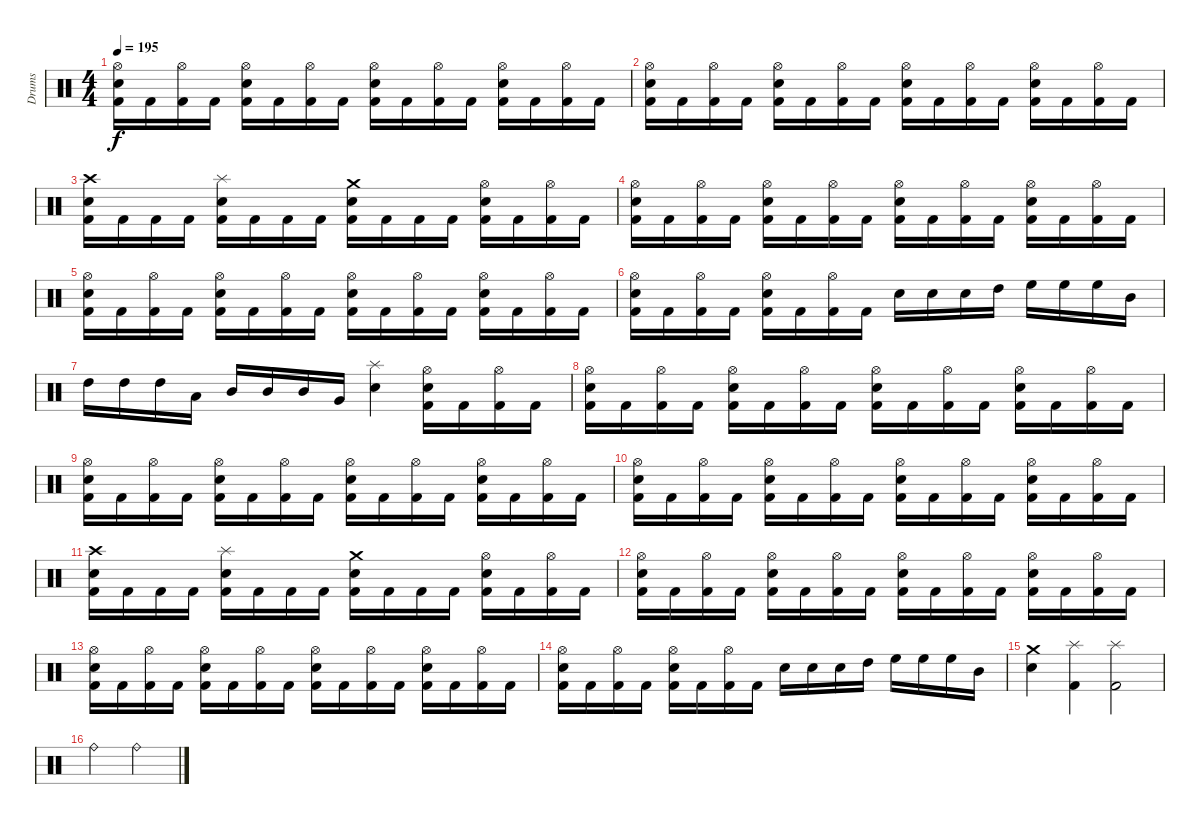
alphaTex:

\track ("Drums" "Drums") {instrument percussion}
\staff {score}
\articulation defaults
\ts (4 4)
\tempo 195
\clef neutral
\ks c
("Hi-Hat (open)" "Electric Snare (hit)" "Kick (hit) 2").16{dy f} "Kick (hit) 2".16 ("Hi-Hat (open)" "Kick (hit) 2").16 "Kick (hit) 2".16 ("Hi-Hat (open)" "Electric Snare (hit)" "Kick (hit) 2").16 "Kick (hit) 2".16 ("Hi-Hat (open)" "Kick (hit) 2").16 "Kick (hit) 2".16 ("Hi-Hat (open)" "Electric Snare (hit)" "Kick (hit) 2").16 "Kick (hit) 2".16 ("Hi-Hat (open)" "Kick (hit) 2").16 "Kick (hit) 2".16 ("Hi-Hat (open)" "Electric Snare (hit)" "Kick (hit) 2").16 "Kick (hit) 2".16 ("Hi-Hat (open)" "Kick (hit) 2").16 "Kick (hit) 2".16 |
("Hi-Hat (open)" "Electric Snare (hit)" "Kick (hit) 2").16 "Kick (hit) 2".16 ("Hi-Hat (open)" "Kick (hit) 2").16 "Kick (hit) 2".16 ("Hi-Hat (open)" "Electric Snare (hit)" "Kick (hit) 2").16 "Kick (hit) 2".16 ("Hi-Hat (open)" "Kick (hit) 2").16 "Kick (hit) 2".16 ("Hi-Hat (open)" "Electric Snare (hit)" "Kick (hit) 2").16 "Kick (hit) 2".16 ("Hi-Hat (open)" "Kick (hit) 2").16 "Kick (hit) 2".16 ("Hi-Hat (open)" "Electric Snare (hit)" "Kick (hit) 2").16 "Kick (hit) 2".16 ("Hi-Hat (open)" "Kick (hit) 2").16 "Kick (hit) 2".16 |
("Crash high (hit)" "Electric Snare (hit)" "Kick (hit) 2").16 "Kick (hit) 2".16 "Kick (hit) 2".16 "Kick (hit) 2".16 ("Splash (hit)" "Electric Snare (hit)" "Kick (hit) 2").16 "Kick (hit) 2".16 "Kick (hit) 2".16 "Kick (hit) 2".16 ("Crash medium (hit)" "Electric Snare (hit)" "Kick (hit) 2").16 "Kick (hit) 2".16 "Kick (hit) 2".16 "Kick (hit) 2".16 ("Hi-Hat (open)" "Electric Snare (hit)" "Kick (hit) 2").16 "Kick (hit) 2".16 ("Hi-Hat (open)" "Kick (hit) 2").16 "Kick (hit) 2".16 |
("Hi-Hat (open)" "Electric Snare (hit)" "Kick (hit) 2").16 "Kick (hit) 2".16 ("Hi-Hat (open)" "Kick (hit) 2").16 "Kick (hit) 2".16 ("Hi-Hat (open)" "Electric Snare (hit)" "Kick (hit) 2").16 "Kick (hit) 2".16 ("Hi-Hat (open)" "Kick (hit) 2").16 "Kick (hit) 2".16 ("Hi-Hat (open)" "Electric Snare (hit)" "Kick (hit) 2").16 "Kick (hit) 2".16 ("Hi-Hat (open)" "Kick (hit) 2").16 "Kick (hit) 2".16 ("Hi-Hat (open)" "Electric Snare (hit)" "Kick (hit) 2").16 "Kick (hit) 2".16 ("Hi-Hat (open)" "Kick (hit) 2").16 "Kick (hit) 2".16 |
("Hi-Hat (open)" "Electric Snare (hit)" "Kick (hit) 2").16 "Kick (hit) 2".16 ("Hi-Hat (open)" "Kick (hit) 2").16 "Kick (hit) 2".16 ("Hi-Hat (open)" "Electric Snare (hit)" "Kick (hit) 2").16 "Kick (hit) 2".16 ("Hi-Hat (open)" "Kick (hit) 2").16 "Kick (hit) 2".16 ("Hi-Hat (open)" "Electric Snare (hit)" "Kick (hit) 2").16 "Kick (hit) 2".16 ("Hi-Hat (open)" "Kick (hit) 2").16 "Kick (hit) 2".16 ("Hi-Hat (open)" "Electric Snare (hit)" "Kick (hit) 2").16 "Kick (hit) 2".16 ("Hi-Hat (open)" "Kick (hit) 2").16 "Kick (hit) 2".16 |
("Hi-Hat (open)" "Electric Snare (hit)" "Kick (hit) 2").16 "Kick (hit) 2".16 ("Hi-Hat (open)" "Kick (hit) 2").16 "Kick (hit) 2".16 ("Hi-Hat (open)" "Electric Snare (hit)" "Kick (hit) 2").16 "Kick (hit) 2".16 ("Hi-Hat (open)" "Kick (hit) 2").16 "Kick (hit) 2".16 "Electric Snare (hit)".16 "Electric Snare (hit)".16 "Electric Snare (hit)".16 "High Tom (hit)".16 "High Floor Tom (hit)".16 "High Floor Tom (hit)".16 "High Floor Tom (hit)".16 "Mid Tom (hit)".16 |
"High Tom (hit)".16 "High Tom (hit)".16 "High Tom (hit)".16 "Low Tom (hit)".16 "Mid Tom (hit)".16 "Mid Tom (hit)".16 "Mid Tom (hit)".16 "Very Low Tom (hit)".16 ("Splash (hit)" "Electric Snare (hit)").4 ("Hi-Hat (open)" "Electric Snare (hit)" "Kick (hit) 2").16 "Kick (hit) 2".16 ("Hi-Hat (open)" "Kick (hit) 2").16 "Kick (hit) 2".16 |
("Hi-Hat (open)" "Electric Snare (hit)" "Kick (hit) 2").16 "Kick (hit) 2".16 ("Hi-Hat (open)" "Kick (hit) 2").16 "Kick (hit) 2".16 ("Hi-Hat (open)" "Electric Snare (hit)" "Kick (hit) 2").16 "Kick (hit) 2".16 ("Hi-Hat (open)" "Kick (hit) 2").16 "Kick (hit) 2".16 ("Hi-Hat (open)" "Electric Snare (hit)" "Kick (hit) 2").16 "Kick (hit) 2".16 ("Hi-Hat (open)" "Kick (hit) 2").16 "Kick (hit) 2".16 ("Hi-Hat (open)" "Electric Snare (hit)" "Kick (hit) 2").16 "Kick (hit) 2".16 ("Hi-Hat (open)" "Kick (hit) 2").16 "Kick (hit) 2".16 |
("Hi-Hat (open)" "Electric Snare (hit)" "Kick (hit) 2").16 "Kick (hit) 2".16 ("Hi-Hat (open)" "Kick (hit) 2").16 "Kick (hit) 2".16 ("Hi-Hat (open)" "Electric Snare (hit)" "Kick (hit) 2").16 "Kick (hit) 2".16 ("Hi-Hat (open)" "Kick (hit) 2").16 "Kick (hit) 2".16 ("Hi-Hat (open)" "Electric Snare (hit)" "Kick (hit) 2").16 "Kick (hit) 2".16 ("Hi-Hat (open)" "Kick (hit) 2").16 "Kick (hit) 2".16 ("Hi-Hat (open)" "Electric Snare (hit)" "Kick (hit) 2").16 "Kick (hit) 2".16 ("Hi-Hat (open)" "Kick (hit) 2").16 "Kick (hit) 2".16 |
("Hi-Hat (open)" "Electric Snare (hit)" "Kick (hit) 2").16 "Kick (hit) 2".16 ("Hi-Hat (open)" "Kick (hit) 2").16 "Kick (hit) 2".16 ("Hi-Hat (open)" "Electric Snare (hit)" "Kick (hit) 2").16 "Kick (hit) 2".16 ("Hi-Hat (open)" "Kick (hit) 2").16 "Kick (hit) 2".16 ("Hi-Hat (open)" "Electric Snare (hit)" "Kick (hit) 2").16 "Kick (hit) 2".16 ("Hi-Hat (open)" "Kick (hit) 2").16 "Kick (hit) 2".16 ("Hi-Hat (open)" "Electric Snare (hit)" "Kick (hit) 2").16 "Kick (hit) 2".16 ("Hi-Hat (open)" "Kick (hit) 2").16 "Kick (hit) 2".16 |
("Crash high (hit)" "Electric Snare (hit)" "Kick (hit) 2").16 "Kick (hit) 2".16 "Kick (hit) 2".16 "Kick (hit) 2".16 ("Splash (hit)" "Electric Snare (hit)" "Kick (hit) 2").16 "Kick (hit) 2".16 "Kick (hit) 2".16 "Kick (hit) 2".16 ("Crash medium (hit)" "Electric Snare (hit)" "Kick (hit) 2").16 "Kick (hit) 2".16 "Kick (hit) 2".16 "Kick (hit) 2".16 ("Hi-Hat (open)" "Electric Snare (hit)" "Kick (hit) 2").16 "Kick (hit) 2".16 ("Hi-Hat (open)" "Kick (hit) 2").16 "Kick (hit) 2".16 |
("Hi-Hat (open)" "Electric Snare (hit)" "Kick (hit) 2").16 "Kick (hit) 2".16 ("Hi-Hat (open)" "Kick (hit) 2").16 "Kick (hit) 2".16 ("Hi-Hat (open)" "Electric Snare (hit)" "Kick (hit) 2").16 "Kick (hit) 2".16 ("Hi-Hat (open)" "Kick (hit) 2").16 "Kick (hit) 2".16 ("Hi-Hat (open)" "Electric Snare (hit)" "Kick (hit) 2").16 "Kick (hit) 2".16 ("Hi-Hat (open)" "Kick (hit) 2").16 "Kick (hit) 2".16 ("Hi-Hat (open)" "Electric Snare (hit)" "Kick (hit) 2").16 "Kick (hit) 2".16 ("Hi-Hat (open)" "Kick (hit) 2").16 "Kick (hit) 2".16 |
("Hi-Hat (open)" "Electric Snare (hit)" "Kick (hit) 2").16 "Kick (hit) 2".16 ("Hi-Hat (open)" "Kick (hit) 2").16 "Kick (hit) 2".16 ("Hi-Hat (open)" "Electric Snare (hit)" "Kick (hit) 2").16 "Kick (hit) 2".16 ("Hi-Hat (open)" "Kick (hit) 2").16 "Kick (hit) 2".16 ("Hi-Hat (open)" "Electric Snare (hit)" "Kick (hit) 2").16 "Kick (hit) 2".16 ("Hi-Hat (open)" "Kick (hit) 2").16 "Kick (hit) 2".16 ("Hi-Hat (open)" "Electric Snare (hit)" "Kick (hit) 2").16 "Kick (hit) 2".16 ("Hi-Hat (open)" "Kick (hit) 2").16 "Kick (hit) 2".16 |
("Hi-Hat (open)" "Electric Snare (hit)" "Kick (hit) 2").16 "Kick (hit) 2".16 ("Hi-Hat (open)" "Kick (hit) 2").16 "Kick (hit) 2".16 ("Hi-Hat (open)" "Electric Snare (hit)" "Kick (hit) 2").16 "Kick (hit) 2".16 ("Hi-Hat (open)" "Kick (hit) 2").16 "Kick (hit) 2".16 "Electric Snare (hit)".16 "Electric Snare (hit)".16 "Electric Snare (hit)".16 "High Tom (hit)".16 "High Floor Tom (hit)".16 "High Floor Tom (hit)".16 "High Floor Tom (hit)".16 "Mid Tom (hit)".16 |
("Crash medium (hit)" "Electric Snare (hit)").4 ("Splash (hit)" "Kick (hit) 2").4 ("Splash (hit)" "Kick (hit) 2").2 |
"Ride (bell)".2 "Ride (bell)".2
